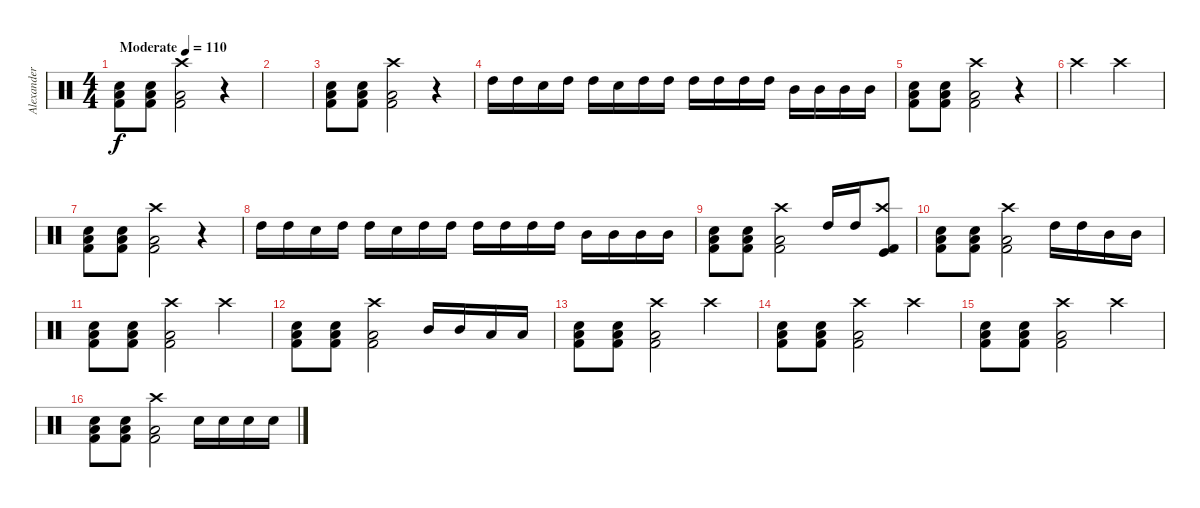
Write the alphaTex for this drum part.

\track ("Alexander C." "Alexander ") {instrument percussion}
\staff {score}
\articulation defaults
\ts (4 4)
\tempo (110 "Moderate")
\clef neutral
\ks c
("Snare (hit) 2" "Kick (hit) 2" "Low Tom (hit)").8{dy f} ("Snare (hit) 2" "Kick (hit) 2" "Low Tom (hit)").8 ("Crash high (hit)" "Kick (hit) 2" "Low Tom (hit)").2 r.4 |
|
("Snare (hit) 2" "Kick (hit) 2" "Low Tom (hit)").8 ("Snare (hit) 2" "Kick (hit) 2" "Low Tom (hit)").8 ("Crash high (hit)" "Kick (hit) 2" "Low Tom (hit)").2 r.4 |
"High Tom (hit)".16 "High Tom (hit)".16 "Snare (hit) 2".16 "High Tom (hit)".16 "High Tom (hit)".16 "Snare (hit) 2".16 "High Tom (hit)".16 "High Tom (hit)".16 "High Tom (hit)".16 "High Tom (hit)".16 "High Tom (hit)".16 "High Tom (hit)".16 "Mid Tom (hit)".16 "Mid Tom (hit)".16 "Mid Tom (hit)".16 "Mid Tom (hit)".16 |
("Snare (hit) 2" "Kick (hit) 2" "Low Tom (hit)").8 ("Snare (hit) 2" "Kick (hit) 2" "Low Tom (hit)").8 ("Crash high (hit)" "Kick (hit) 2" "Low Tom (hit)").2 r.4 |
"Crash high (hit)".2 "Crash high (hit)".2 |
("Snare (hit) 2" "Kick (hit) 2" "Low Tom (hit)").8 ("Snare (hit) 2" "Kick (hit) 2" "Low Tom (hit)").8 ("Crash high (hit)" "Kick (hit) 2" "Low Tom (hit)").2 r.4 |
"High Tom (hit)".16 "High Tom (hit)".16 "Snare (hit) 2".16 "High Tom (hit)".16 "High Tom (hit)".16 "Snare (hit) 2".16 "High Tom (hit)".16 "High Tom (hit)".16 "High Tom (hit)".16 "High Tom (hit)".16 "High Tom (hit)".16 "High Tom (hit)".16 "Mid Tom (hit)".16 "Mid Tom (hit)".16 "Mid Tom (hit)".16 "Mid Tom (hit)".16 |
("Snare (hit) 2" "Kick (hit) 2" "Low Tom (hit)").8 ("Snare (hit) 2" "Kick (hit) 2" "Low Tom (hit)").8 ("Crash high (hit)" "Kick (hit) 2" "Low Tom (hit)").2 "High Tom (hit)".16 "High Tom (hit)".16 ("Crash high (hit)" "Kick (hit)" "Kick (hit) 2").8 |
("Snare (hit) 2" "Kick (hit) 2" "Low Tom (hit)").8 ("Snare (hit) 2" "Kick (hit) 2" "Low Tom (hit)").8 ("Crash high (hit)" "Kick (hit) 2" "Low Tom (hit)").2 "High Tom (hit)".16 "High Tom (hit)".16 "Mid Tom (hit)".16 "Mid Tom (hit)".16 |
("Snare (hit) 2" "Kick (hit) 2" "Low Tom (hit)").8 ("Snare (hit) 2" "Kick (hit) 2" "Low Tom (hit)").8 ("Crash high (hit)" "Kick (hit) 2" "Low Tom (hit)").2 "Crash high (hit)".4 |
("Snare (hit) 2" "Kick (hit) 2" "Low Tom (hit)").8 ("Snare (hit) 2" "Kick (hit) 2" "Low Tom (hit)").8 ("Crash high (hit)" "Kick (hit) 2" "Low Tom (hit)").2 "Mid Tom (hit)".16 "Mid Tom (hit)".16 "Low Tom (hit)".16 "Low Tom (hit)".16 |
("Snare (hit) 2" "Kick (hit) 2" "Low Tom (hit)").8 ("Snare (hit) 2" "Kick (hit) 2" "Low Tom (hit)").8 ("Crash high (hit)" "Kick (hit) 2" "Low Tom (hit)").2 "Crash high (hit)".4 |
("Snare (hit) 2" "Kick (hit) 2" "Low Tom (hit)").8 ("Snare (hit) 2" "Kick (hit) 2" "Low Tom (hit)").8 ("Crash high (hit)" "Kick (hit) 2" "Low Tom (hit)").2 "Crash high (hit)".4 |
("Snare (hit) 2" "Kick (hit) 2" "Low Tom (hit)").8 ("Snare (hit) 2" "Kick (hit) 2" "Low Tom (hit)").8 ("Crash high (hit)" "Kick (hit) 2" "Low Tom (hit)").2 "Crash high (hit)".4 |
("Snare (hit) 2" "Kick (hit) 2" "Low Tom (hit)").8 ("Snare (hit) 2" "Kick (hit) 2" "Low Tom (hit)").8 ("Crash high (hit)" "Kick (hit) 2" "Low Tom (hit)").2 "Snare (hit) 2".16 "Snare (hit) 2".16 "Snare (hit) 2".16 "Snare (hit) 2".16
